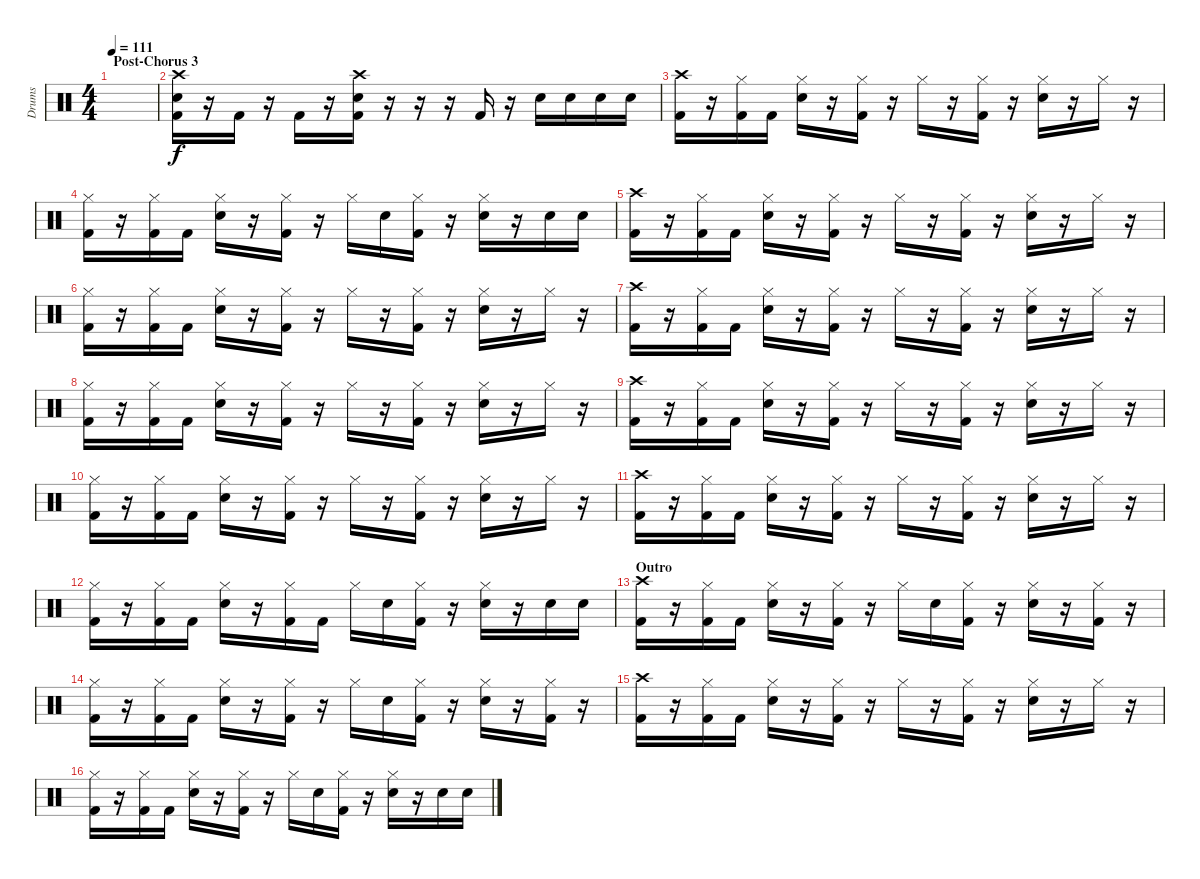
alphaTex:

\track ("Drums" "Drums") {instrument percussion}
\staff {score}
\articulation defaults
\ts (4 4)
\section ("" "Post-Chorus 3")
\tempo 111
\clef neutral
\ks c
|
("Crash high (hit)" "Snare (hit) 2" "Kick (hit) 2").16 r.16 "Kick (hit) 2".16 r.16 "Kick (hit) 2".16 r.16 ("Crash high (hit)" "Snare (hit) 2" "Kick (hit) 2").16 r.16 r.16 r.16 "Kick (hit) 2".16 r.16 "Snare (hit) 2".16 "Snare (hit) 2".16 "Snare (hit) 2".16 "Snare (hit) 2".16 |
("Crash high (hit)" "Kick (hit) 2").16 r.16 ("Hi-Hat (closed)" "Kick (hit) 2").16 "Kick (hit) 2".16 ("Hi-Hat (closed)" "Snare (hit) 2").16 r.16 ("Hi-Hat (closed)" "Kick (hit) 2").16 r.16 "Hi-Hat (closed)".16 r.16 ("Hi-Hat (closed)" "Kick (hit) 2").16 r.16 ("Hi-Hat (closed)" "Snare (hit) 2").16 r.16 "Hi-Hat (closed)".16 r.16 |
("Hi-Hat (closed)" "Kick (hit) 2").16 r.16 ("Hi-Hat (closed)" "Kick (hit) 2").16 "Kick (hit) 2".16 ("Hi-Hat (closed)" "Snare (hit) 2").16 r.16 ("Hi-Hat (closed)" "Kick (hit) 2").16 r.16 "Hi-Hat (closed)".16 "Snare (hit) 2".16 ("Hi-Hat (closed)" "Kick (hit) 2").16 r.16 ("Hi-Hat (closed)" "Snare (hit) 2").16 r.16 "Snare (hit) 2".16 "Snare (hit) 2".16 |
("Crash high (hit)" "Kick (hit) 2").16 r.16 ("Hi-Hat (closed)" "Kick (hit) 2").16 "Kick (hit) 2".16 ("Hi-Hat (closed)" "Snare (hit) 2").16 r.16 ("Hi-Hat (closed)" "Kick (hit) 2").16 r.16 "Hi-Hat (closed)".16 r.16 ("Hi-Hat (closed)" "Kick (hit) 2").16 r.16 ("Hi-Hat (closed)" "Snare (hit) 2").16 r.16 "Hi-Hat (closed)".16 r.16 |
("Hi-Hat (closed)" "Kick (hit) 2").16 r.16 ("Hi-Hat (closed)" "Kick (hit) 2").16 "Kick (hit) 2".16 ("Hi-Hat (closed)" "Snare (hit) 2").16 r.16 ("Hi-Hat (closed)" "Kick (hit) 2").16 r.16 "Hi-Hat (closed)".16 r.16 ("Hi-Hat (closed)" "Kick (hit) 2").16 r.16 ("Hi-Hat (closed)" "Snare (hit) 2").16 r.16 "Hi-Hat (closed)".16 r.16 |
("Crash high (hit)" "Kick (hit) 2").16 r.16 ("Hi-Hat (closed)" "Kick (hit) 2").16 "Kick (hit) 2".16 ("Hi-Hat (closed)" "Snare (hit) 2").16 r.16 ("Hi-Hat (closed)" "Kick (hit) 2").16 r.16 "Hi-Hat (closed)".16 r.16 ("Hi-Hat (closed)" "Kick (hit) 2").16 r.16 ("Hi-Hat (closed)" "Snare (hit) 2").16 r.16 "Hi-Hat (closed)".16 r.16 |
("Hi-Hat (closed)" "Kick (hit) 2").16 r.16 ("Hi-Hat (closed)" "Kick (hit) 2").16 "Kick (hit) 2".16 ("Hi-Hat (closed)" "Snare (hit) 2").16 r.16 ("Hi-Hat (closed)" "Kick (hit) 2").16 r.16 "Hi-Hat (closed)".16 r.16 ("Hi-Hat (closed)" "Kick (hit) 2").16 r.16 ("Hi-Hat (closed)" "Snare (hit) 2").16 r.16 "Hi-Hat (closed)".16 r.16 |
("Crash high (hit)" "Kick (hit) 2").16 r.16 ("Hi-Hat (closed)" "Kick (hit) 2").16 "Kick (hit) 2".16 ("Hi-Hat (closed)" "Snare (hit) 2").16 r.16 ("Hi-Hat (closed)" "Kick (hit) 2").16 r.16 "Hi-Hat (closed)".16 r.16 ("Hi-Hat (closed)" "Kick (hit) 2").16 r.16 ("Hi-Hat (closed)" "Snare (hit) 2").16 r.16 "Hi-Hat (closed)".16 r.16 |
("Hi-Hat (closed)" "Kick (hit) 2").16 r.16 ("Hi-Hat (closed)" "Kick (hit) 2").16 "Kick (hit) 2".16 ("Hi-Hat (closed)" "Snare (hit) 2").16 r.16 ("Hi-Hat (closed)" "Kick (hit) 2").16 r.16 "Hi-Hat (closed)".16 r.16 ("Hi-Hat (closed)" "Kick (hit) 2").16 r.16 ("Hi-Hat (closed)" "Snare (hit) 2").16 r.16 "Hi-Hat (closed)".16 r.16 |
("Crash high (hit)" "Kick (hit) 2").16 r.16 ("Hi-Hat (closed)" "Kick (hit) 2").16 "Kick (hit) 2".16 ("Hi-Hat (closed)" "Snare (hit) 2").16 r.16 ("Hi-Hat (closed)" "Kick (hit) 2").16 r.16 "Hi-Hat (closed)".16 r.16 ("Hi-Hat (closed)" "Kick (hit) 2").16 r.16 ("Hi-Hat (closed)" "Snare (hit) 2").16 r.16 "Hi-Hat (closed)".16 r.16 |
("Hi-Hat (closed)" "Kick (hit) 2").16 r.16 ("Hi-Hat (closed)" "Kick (hit) 2").16 "Kick (hit) 2".16 ("Hi-Hat (closed)" "Snare (hit) 2").16 r.16 ("Hi-Hat (closed)" "Kick (hit) 2").16 "Kick (hit) 2".16 "Hi-Hat (closed)".16 "Snare (hit) 2".16 ("Hi-Hat (closed)" "Kick (hit) 2").16 r.16 ("Hi-Hat (closed)" "Snare (hit) 2").16 r.16 "Snare (hit) 2".16 "Snare (hit) 2".16 |
\section ("" "Outro")
("Crash high (hit)" "Kick (hit) 2").16 r.16 ("Hi-Hat (closed)" "Kick (hit) 2").16 "Kick (hit) 2".16 ("Hi-Hat (closed)" "Snare (hit) 2").16 r.16 ("Hi-Hat (closed)" "Kick (hit) 2").16 r.16 "Hi-Hat (closed)".16 "Snare (hit) 2".16 ("Hi-Hat (closed)" "Kick (hit) 2").16 r.16 ("Hi-Hat (closed)" "Snare (hit) 2").16 r.16 ("Hi-Hat (closed)" "Kick (hit) 2").16 r.16 |
("Hi-Hat (closed)" "Kick (hit) 2").16 r.16 ("Hi-Hat (closed)" "Kick (hit) 2").16 "Kick (hit) 2".16 ("Hi-Hat (closed)" "Snare (hit) 2").16 r.16 ("Hi-Hat (closed)" "Kick (hit) 2").16 r.16 "Hi-Hat (closed)".16 "Snare (hit) 2".16 ("Hi-Hat (closed)" "Kick (hit) 2").16 r.16 ("Hi-Hat (closed)" "Snare (hit) 2").16 r.16 ("Hi-Hat (closed)" "Kick (hit) 2").16 r.16 |
("Crash high (hit)" "Kick (hit) 2").16 r.16 ("Hi-Hat (closed)" "Kick (hit) 2").16 "Kick (hit) 2".16 ("Hi-Hat (closed)" "Snare (hit) 2").16 r.16 ("Hi-Hat (closed)" "Kick (hit) 2").16 r.16 "Hi-Hat (closed)".16 r.16 ("Hi-Hat (closed)" "Kick (hit) 2").16 r.16 ("Hi-Hat (closed)" "Snare (hit) 2").16 r.16 "Hi-Hat (closed)".16 r.16 |
("Hi-Hat (closed)" "Kick (hit) 2").16 r.16 ("Hi-Hat (closed)" "Kick (hit) 2").16 "Kick (hit) 2".16 ("Hi-Hat (closed)" "Snare (hit) 2").16 r.16 ("Hi-Hat (closed)" "Kick (hit) 2").16 r.16 "Hi-Hat (closed)".16 "Snare (hit) 2".16 ("Hi-Hat (closed)" "Kick (hit) 2").16 r.16 ("Hi-Hat (closed)" "Snare (hit) 2").16 r.16 "Snare (hit) 2".16 "Snare (hit) 2".16
